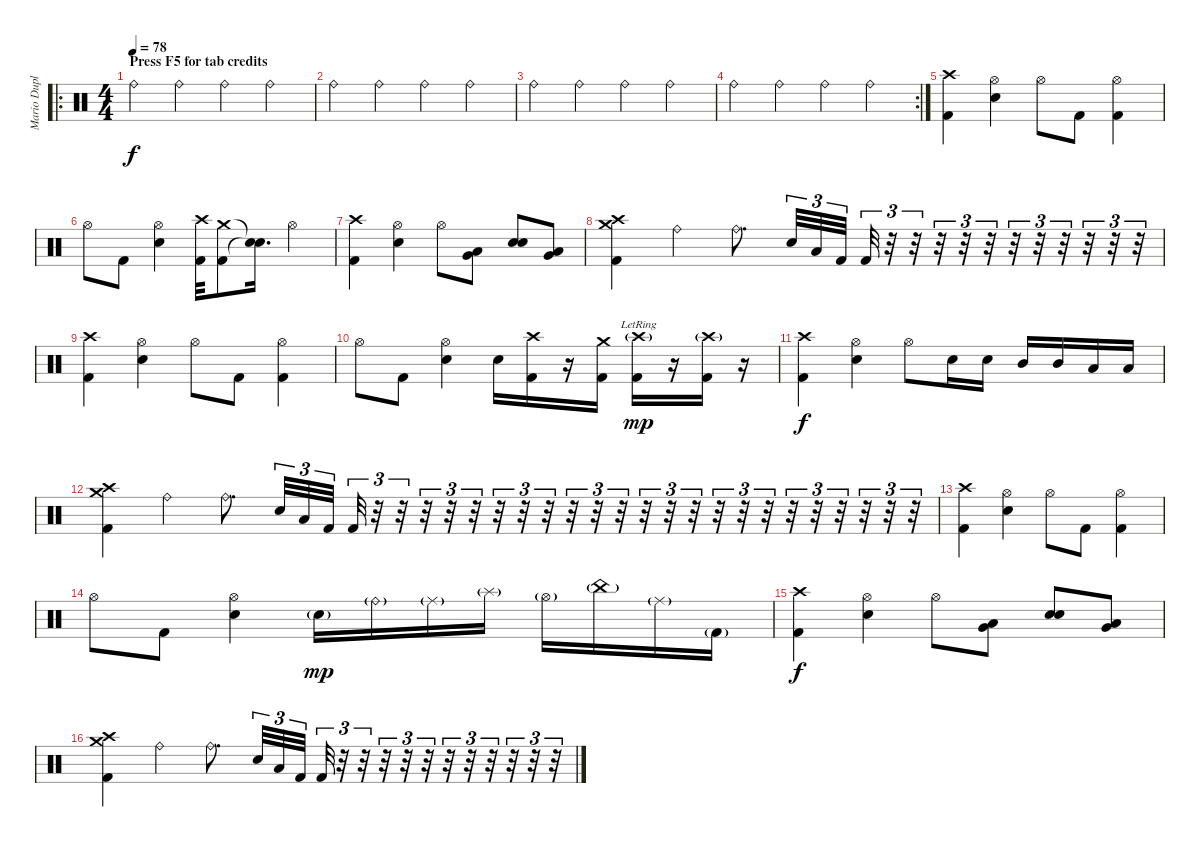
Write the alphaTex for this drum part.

\track ("Mario Duplantier " "Mario Dupl") {instrument percussion}
\staff {score}
\articulation defaults
\ro
\ts (4 4)
\section ("" "Press F5 for tab credits")
\tempo 78
\clef neutral
\ks c "Ride (bell)".4{dy f} "Ride (bell)".4 "Ride (bell)".4 "Ride (bell)".4
|
"Ride (bell)".4 "Ride (bell)".4 "Ride (bell)".4 "Ride (bell)".4 |
"Ride (bell)".4 "Ride (bell)".4 "Ride (bell)".4 "Ride (bell)".4 |
\rc 2 "Ride (bell)".4 "Ride (bell)".4 "Ride (bell)".4 "Ride (bell)".4
|
("Crash high (hit)" "Kick (hit) 2").4 ("Hi-Hat (open)" "Electric Snare (hit)").4 "Hi-Hat (open)".8 "Kick (hit) 2".8 ("Hi-Hat (open)" "Kick (hit) 2").4 |
"Hi-Hat (open)".8 "Kick (hit) 2".8 ("Hi-Hat (open)" "Electric Snare (hit)").4 ("Crash high (hit)" "Kick (hit) 2").32 ("Crash medium (hit)" "Kick (hit) 2").8 ("Snare (hit)"{t} "Snare (hit)"{t}).16{d} "Hi-Hat (open)".4 |
("Crash high (hit)" "Kick (hit) 2").4 ("Hi-Hat (open)" "Electric Snare (hit)").4 "Hi-Hat (open)".8 ("Low Tom (hit)" "Very Low Tom (hit)").8 ("Electric Snare (hit)" "Electric Snare (hit)").8 ("Low Tom (hit)" "Very Low Tom (hit)").8 |
("Crash medium (hit)" "Kick (hit) 2" "Crash high (hit)").4 "Ride (bell)".4 "Ride (bell)".8{d} "Electric Snare (hit)".32{tu (3 2)} "Low Tom (hit)".32{tu (3 2)} "Kick (hit) 2".32{tu (3 2)} "Kick (hit) 2".32{tu (3 2)} r.32{tu (3 2)} r.32{tu (3 2)} r.32{tu (3 2)} r.32{tu (3 2)} r.32{tu (3 2)} r.32{tu (3 2)} r.32{tu (3 2)} r.32{tu (3 2)} r.32{tu (3 2)} r.32{tu (3 2)} r.32{tu (3 2)} |
("Crash high (hit)" "Kick (hit) 2").4 ("Hi-Hat (open)" "Electric Snare (hit)").4 "Hi-Hat (open)".8 "Kick (hit) 2".8 ("Hi-Hat (open)" "Kick (hit) 2").4 |
"Hi-Hat (open)".8 "Kick (hit) 2".8 ("Hi-Hat (open)" "Electric Snare (hit)").4 "Electric Snare (hit)".16 ("Crash high (hit)" "Kick (hit) 2").16 r.16 ("Crash medium (hit)" "Kick (hit) 2").16 ("Crash high (hit)"{g lr} "Kick (hit) 2").16{dy mp} r.16 ("Crash high (hit)"{g} "Kick (hit) 2").16 r.16 |
("Crash high (hit)" "Kick (hit) 2").4{dy f} ("Hi-Hat (open)" "Electric Snare (hit)").4 "Hi-Hat (open)".8 "Electric Snare (hit)".16 "Electric Snare (hit)".16 "Mid Tom (hit)".16 "Mid Tom (hit)".16 "Low Tom (hit)".16 "Low Tom (hit)".16 |
("Crash medium (hit)" "Kick (hit) 2" "Crash high (hit)").4 "Ride (bell)".4 "Ride (bell)".8{d} "Electric Snare (hit)".32{tu (3 2)} "Low Tom (hit)".32{tu (3 2)} "Kick (hit) 2".32{tu (3 2)} "Kick (hit) 2".32{tu (3 2)} r.32{tu (3 2)} r.32{tu (3 2)} r.32{tu (3 2)} r.32{tu (3 2)} r.32{tu (3 2)} r.32{tu (3 2)} r.32{tu (3 2)} r.32{tu (3 2)} r.32{tu (3 2)} r.32{tu (3 2)} r.32{tu (3 2)} r.32{tu (3 2)} r.32{tu (3 2)} r.32{tu (3 2)} r.32{tu (3 2)} r.32{tu (3 2)} r.32{tu (3 2)} r.32{tu (3 2)} r.32{tu (3 2)} r.32{tu (3 2)} r.32{tu (3 2)} r.32{tu (3 2)} r.32{tu (3 2)} |
("Crash high (hit)" "Kick (hit) 2").4 ("Hi-Hat (open)" "Electric Snare (hit)").4 "Hi-Hat (open)".8 "Kick (hit) 2".8 ("Hi-Hat (open)" "Kick (hit) 2").4 |
"Hi-Hat (open)".8 "Kick (hit) 2".8 ("Electric Snare (hit)" "Hi-Hat (open)").4 "Electric Snare (hit)"{g}.16{dy mp} "Ride (bell)"{g}.16 "Ride (middle)"{g}.16 "Splash (hit)"{g}.16 "Hi-Hat (open)"{g}.16 "China (hit)"{g}.16 "Ride (middle)"{g}.16 "Kick (hit) 2"{g}.16 |
("Crash high (hit)" "Kick (hit) 2").4{dy f} ("Hi-Hat (open)" "Electric Snare (hit)").4 "Hi-Hat (open)".8 ("Low Tom (hit)" "Very Low Tom (hit)").8 ("Electric Snare (hit)" "Electric Snare (hit)").8 ("Low Tom (hit)" "Very Low Tom (hit)").8 |
("Crash medium (hit)" "Kick (hit) 2" "Crash high (hit)").4 "Ride (bell)".4 "Ride (bell)".8{d} "Electric Snare (hit)".32{tu (3 2)} "Low Tom (hit)".32{tu (3 2)} "Kick (hit) 2".32{tu (3 2)} "Kick (hit) 2".32{tu (3 2)} r.32{tu (3 2)} r.32{tu (3 2)} r.32{tu (3 2)} r.32{tu (3 2)} r.32{tu (3 2)} r.32{tu (3 2)} r.32{tu (3 2)} r.32{tu (3 2)} r.32{tu (3 2)} r.32{tu (3 2)} r.32{tu (3 2)}
